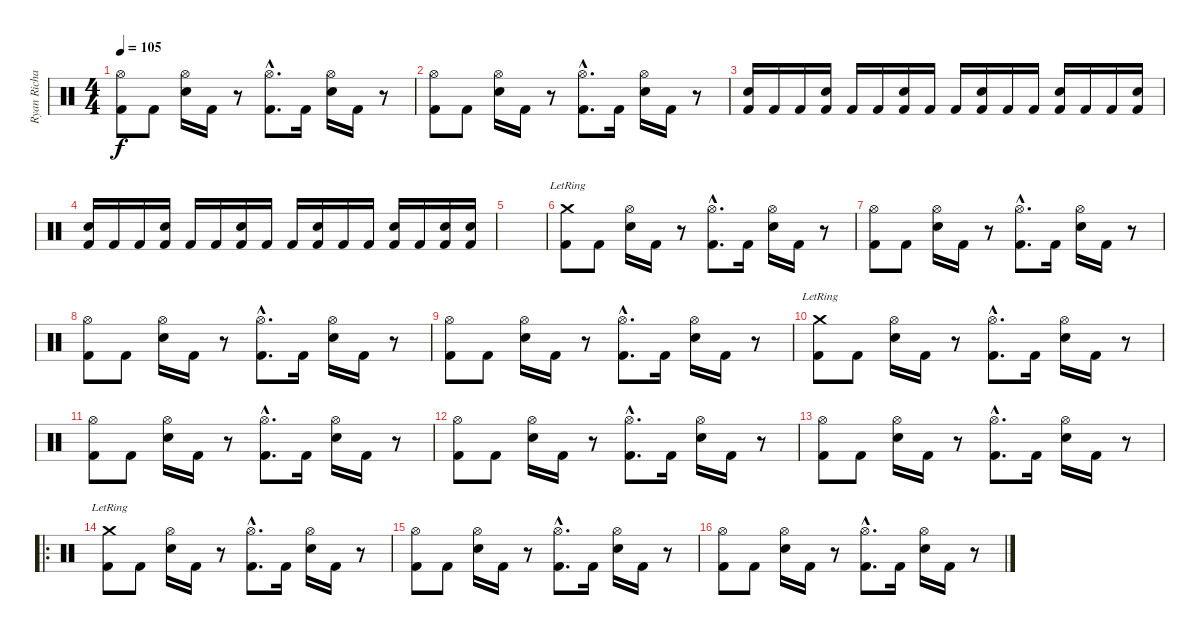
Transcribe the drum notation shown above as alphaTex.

\track ("Ryan Richards" "Ryan Richa") {instrument percussion}
\staff {score}
\articulation defaults
\ts (4 4)
\tempo 105
\clef neutral
\ks c
("Hi-Hat (open)" "Kick (hit) 2").8{dy f} "Kick (hit) 2".8 ("Hi-Hat (open)" "Snare (hit) 2").16 "Kick (hit) 2".16 r.8 ("Hi-Hat (open)"{hac} "Kick (hit) 2"{hac}).8{d} "Kick (hit) 2".16 ("Hi-Hat (open)" "Snare (hit) 2").16 "Kick (hit) 2".16 r.8 |
("Hi-Hat (open)" "Kick (hit) 2").8 "Kick (hit) 2".8 ("Hi-Hat (open)" "Snare (hit) 2").16 "Kick (hit) 2".16 r.8 ("Hi-Hat (open)"{hac} "Kick (hit) 2"{hac}).8{d} "Kick (hit) 2".16 ("Hi-Hat (open)" "Snare (hit) 2").16 "Kick (hit) 2".16 r.8 |
("Snare (hit) 2" "Kick (hit) 2").16 "Kick (hit) 2".16 "Kick (hit) 2".16 ("Snare (hit) 2" "Kick (hit) 2").16 "Kick (hit) 2".16 "Kick (hit) 2".16 ("Snare (hit) 2" "Kick (hit) 2").16 "Kick (hit) 2".16 "Kick (hit) 2".16 ("Snare (hit) 2" "Kick (hit) 2").16 "Kick (hit) 2".16 "Kick (hit) 2".16 ("Snare (hit) 2" "Kick (hit) 2").16 "Kick (hit) 2".16 "Kick (hit) 2".16 ("Snare (hit) 2" "Kick (hit) 2").16 |
("Snare (hit) 2" "Kick (hit) 2").16 "Kick (hit) 2".16 "Kick (hit) 2".16 ("Snare (hit) 2" "Kick (hit) 2").16 "Kick (hit) 2".16 "Kick (hit) 2".16 ("Snare (hit) 2" "Kick (hit) 2").16 "Kick (hit) 2".16 "Kick (hit) 2".16 ("Snare (hit) 2" "Kick (hit) 2").16 "Kick (hit) 2".16 "Kick (hit) 2".16 ("Snare (hit) 2" "Kick (hit) 2").16 "Kick (hit) 2".16 ("Snare (hit) 2" "Kick (hit) 2").16 ("Snare (hit) 2" "Kick (hit) 2").16 |
|
("Crash medium (hit)"{lr} "Kick (hit) 2").8 "Kick (hit) 2".8 ("Hi-Hat (open)" "Snare (hit) 2").16 "Kick (hit) 2".16 r.8 ("Hi-Hat (open)"{hac} "Kick (hit) 2"{hac}).8{d} "Kick (hit) 2".16 ("Hi-Hat (open)" "Snare (hit) 2").16 "Kick (hit) 2".16 r.8 |
("Hi-Hat (open)" "Kick (hit) 2").8 "Kick (hit) 2".8 ("Hi-Hat (open)" "Snare (hit) 2").16 "Kick (hit) 2".16 r.8 ("Hi-Hat (open)"{hac} "Kick (hit) 2"{hac}).8{d} "Kick (hit) 2".16 ("Hi-Hat (open)" "Snare (hit) 2").16 "Kick (hit) 2".16 r.8 |
("Hi-Hat (open)" "Kick (hit) 2").8 "Kick (hit) 2".8 ("Hi-Hat (open)" "Snare (hit) 2").16 "Kick (hit) 2".16 r.8 ("Hi-Hat (open)"{hac} "Kick (hit) 2"{hac}).8{d} "Kick (hit) 2".16 ("Hi-Hat (open)" "Snare (hit) 2").16 "Kick (hit) 2".16 r.8 |
("Hi-Hat (open)" "Kick (hit) 2").8 "Kick (hit) 2".8 ("Hi-Hat (open)" "Snare (hit) 2").16 "Kick (hit) 2".16 r.8 ("Hi-Hat (open)"{hac} "Kick (hit) 2"{hac}).8{d} "Kick (hit) 2".16 ("Hi-Hat (open)" "Snare (hit) 2").16 "Kick (hit) 2".16 r.8 |
("Crash medium (hit)"{lr} "Kick (hit) 2").8 "Kick (hit) 2".8 ("Hi-Hat (open)" "Snare (hit) 2").16 "Kick (hit) 2".16 r.8 ("Hi-Hat (open)"{hac} "Kick (hit) 2"{hac}).8{d} "Kick (hit) 2".16 ("Hi-Hat (open)" "Snare (hit) 2").16 "Kick (hit) 2".16 r.8 |
("Hi-Hat (open)" "Kick (hit) 2").8 "Kick (hit) 2".8 ("Hi-Hat (open)" "Snare (hit) 2").16 "Kick (hit) 2".16 r.8 ("Hi-Hat (open)"{hac} "Kick (hit) 2"{hac}).8{d} "Kick (hit) 2".16 ("Hi-Hat (open)" "Snare (hit) 2").16 "Kick (hit) 2".16 r.8 |
("Hi-Hat (open)" "Kick (hit) 2").8 "Kick (hit) 2".8 ("Hi-Hat (open)" "Snare (hit) 2").16 "Kick (hit) 2".16 r.8 ("Hi-Hat (open)"{hac} "Kick (hit) 2"{hac}).8{d} "Kick (hit) 2".16 ("Hi-Hat (open)" "Snare (hit) 2").16 "Kick (hit) 2".16 r.8 |
("Hi-Hat (open)" "Kick (hit) 2").8 "Kick (hit) 2".8 ("Hi-Hat (open)" "Snare (hit) 2").16 "Kick (hit) 2".16 r.8 ("Hi-Hat (open)"{hac} "Kick (hit) 2"{hac}).8{d} "Kick (hit) 2".16 ("Hi-Hat (open)" "Snare (hit) 2").16 "Kick (hit) 2".16 r.8 |
\ro
("Crash medium (hit)"{lr} "Kick (hit) 2").8 "Kick (hit) 2".8 ("Hi-Hat (open)" "Snare (hit) 2").16 "Kick (hit) 2".16 r.8 ("Hi-Hat (open)"{hac} "Kick (hit) 2"{hac}).8{d} "Kick (hit) 2".16 ("Hi-Hat (open)" "Snare (hit) 2").16 "Kick (hit) 2".16 r.8 |
("Hi-Hat (open)" "Kick (hit) 2").8 "Kick (hit) 2".8 ("Hi-Hat (open)" "Snare (hit) 2").16 "Kick (hit) 2".16 r.8 ("Hi-Hat (open)"{hac} "Kick (hit) 2"{hac}).8{d} "Kick (hit) 2".16 ("Hi-Hat (open)" "Snare (hit) 2").16 "Kick (hit) 2".16 r.8 |
("Hi-Hat (open)" "Kick (hit) 2").8 "Kick (hit) 2".8 ("Hi-Hat (open)" "Snare (hit) 2").16 "Kick (hit) 2".16 r.8 ("Hi-Hat (open)"{hac} "Kick (hit) 2"{hac}).8{d} "Kick (hit) 2".16 ("Hi-Hat (open)" "Snare (hit) 2").16 "Kick (hit) 2".16 r.8
